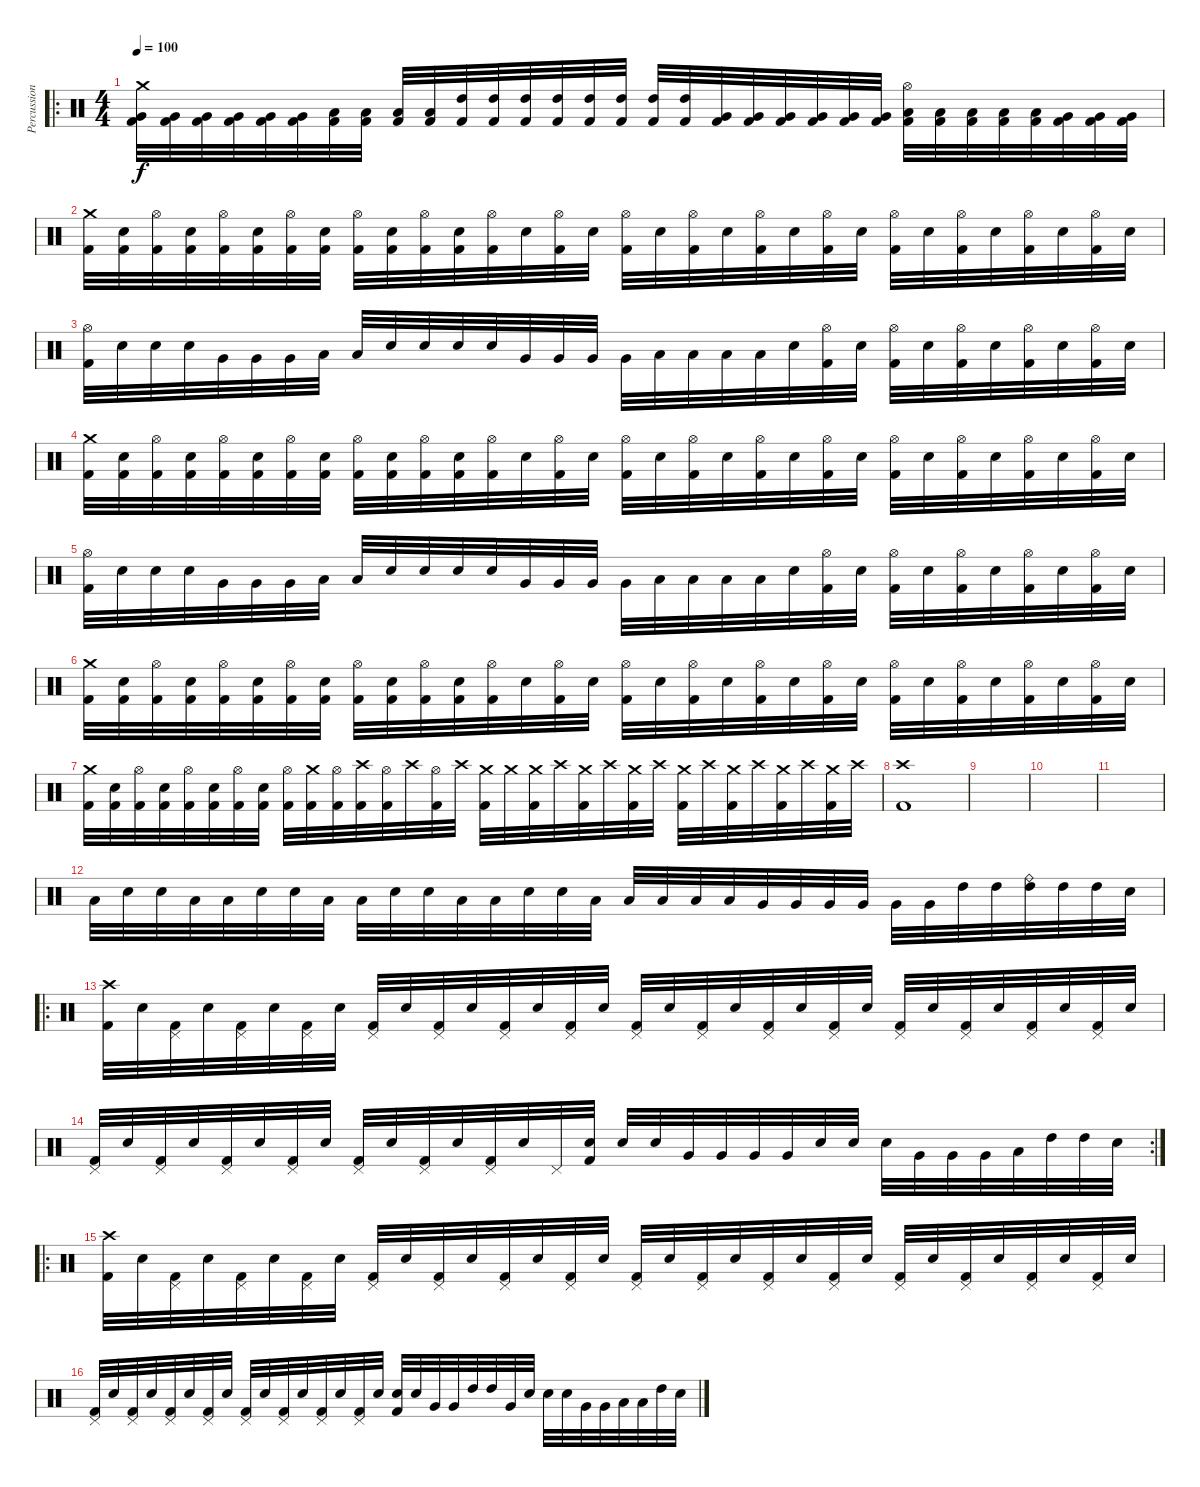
\track ("Percussion" "Percussion") {instrument percussion}
\staff {score}
\articulation defaults
\ro
\ts (4 4)
\tempo 100
\clef neutral
\ks c
("Crash medium (hit)" "Very Low Tom (hit)" "Kick (hit) 2").32{dy f} ("Very Low Tom (hit)" "Kick (hit) 2").32 ("Very Low Tom (hit)" "Kick (hit) 2").32 ("Very Low Tom (hit)" "Kick (hit) 2").32 ("Very Low Tom (hit)" "Kick (hit) 2").32 ("Very Low Tom (hit)" "Kick (hit) 2").32 ("Low Tom (hit)" "Kick (hit) 2").32 ("Low Tom (hit)" "Kick (hit) 2").32 ("Low Tom (hit)" "Kick (hit) 2").32 ("Low Tom (hit)" "Kick (hit) 2").32 ("High Tom (hit)" "Kick (hit) 2").32 ("High Tom (hit)" "Kick (hit) 2").32 ("High Tom (hit)" "Kick (hit) 2").32 ("High Tom (hit)" "Kick (hit) 2").32 ("High Tom (hit)" "Kick (hit) 2").32 ("High Tom (hit)" "Kick (hit) 2").32 ("High Tom (hit)" "Kick (hit) 2").32 ("High Tom (hit)" "Kick (hit) 2").32 ("Very Low Tom (hit)" "Kick (hit) 2").32 ("Very Low Tom (hit)" "Kick (hit) 2").32 ("Very Low Tom (hit)" "Kick (hit) 2").32 ("Very Low Tom (hit)" "Kick (hit) 2").32 ("Very Low Tom (hit)" "Kick (hit) 2").32 ("Very Low Tom (hit)" "Kick (hit) 2").32 ("Hi-Hat (open)" "Low Tom (hit)" "Kick (hit) 2").32 ("Low Tom (hit)" "Kick (hit) 2").32 ("Low Tom (hit)" "Kick (hit) 2").32 ("Low Tom (hit)" "Kick (hit) 2").32 ("Low Tom (hit)" "Kick (hit) 2").32 ("Very Low Tom (hit)" "Kick (hit) 2").32 ("Very Low Tom (hit)" "Kick (hit) 2").32 ("Very Low Tom (hit)" "Kick (hit) 2").32 |
("Crash medium (hit)" "Kick (hit) 2").32 ("Electric Snare (hit)" "Kick (hit) 2").32 ("Hi-Hat (open)" "Kick (hit) 2").32 ("Electric Snare (hit)" "Kick (hit) 2").32 ("Hi-Hat (open)" "Kick (hit) 2").32 ("Electric Snare (hit)" "Kick (hit) 2").32 ("Hi-Hat (open)" "Kick (hit) 2").32 ("Electric Snare (hit)" "Kick (hit) 2").32 ("Hi-Hat (open)" "Kick (hit) 2").32 ("Electric Snare (hit)" "Kick (hit) 2").32 ("Hi-Hat (open)" "Kick (hit) 2").32 ("Electric Snare (hit)" "Kick (hit) 2").32 ("Hi-Hat (open)" "Kick (hit) 2").32 "Electric Snare (hit)".32 ("Hi-Hat (open)" "Kick (hit) 2").32 "Electric Snare (hit)".32 ("Hi-Hat (open)" "Kick (hit) 2").32 "Electric Snare (hit)".32 ("Hi-Hat (open)" "Kick (hit) 2").32 "Electric Snare (hit)".32 ("Hi-Hat (open)" "Kick (hit) 2").32 "Electric Snare (hit)".32 ("Hi-Hat (open)" "Kick (hit) 2").32 "Electric Snare (hit)".32 ("Hi-Hat (open)" "Kick (hit) 2").32 "Electric Snare (hit)".32 ("Hi-Hat (open)" "Kick (hit) 2").32 "Electric Snare (hit)".32 ("Hi-Hat (open)" "Kick (hit) 2").32 "Electric Snare (hit)".32 ("Hi-Hat (open)" "Kick (hit) 2").32 "Electric Snare (hit)".32 |
("Hi-Hat (open)" "Kick (hit) 2").32 "Electric Snare (hit)".32 "Electric Snare (hit)".32 "Electric Snare (hit)".32 "Very Low Tom (hit)".32 "Very Low Tom (hit)".32 "Very Low Tom (hit)".32 "Low Tom (hit)".32 "Low Tom (hit)".32 "Electric Snare (hit)".32 "Electric Snare (hit)".32 "Electric Snare (hit)".32 "Electric Snare (hit)".32 "Very Low Tom (hit)".32 "Very Low Tom (hit)".32 "Very Low Tom (hit)".32 "Very Low Tom (hit)".32 "Low Tom (hit)".32 "Low Tom (hit)".32 "Low Tom (hit)".32 "Low Tom (hit)".32 "Electric Snare (hit)".32 ("Hi-Hat (open)" "Kick (hit) 2").32 "Electric Snare (hit)".32 ("Hi-Hat (open)" "Kick (hit) 2").32 "Electric Snare (hit)".32 ("Hi-Hat (open)" "Kick (hit) 2").32 "Electric Snare (hit)".32 ("Hi-Hat (open)" "Kick (hit) 2").32 "Electric Snare (hit)".32 ("Hi-Hat (open)" "Kick (hit) 2").32 "Electric Snare (hit)".32 |
("Crash medium (hit)" "Kick (hit) 2").32 ("Electric Snare (hit)" "Kick (hit) 2").32 ("Hi-Hat (open)" "Kick (hit) 2").32 ("Electric Snare (hit)" "Kick (hit) 2").32 ("Hi-Hat (open)" "Kick (hit) 2").32 ("Electric Snare (hit)" "Kick (hit) 2").32 ("Hi-Hat (open)" "Kick (hit) 2").32 ("Electric Snare (hit)" "Kick (hit) 2").32 ("Hi-Hat (open)" "Kick (hit) 2").32 ("Electric Snare (hit)" "Kick (hit) 2").32 ("Hi-Hat (open)" "Kick (hit) 2").32 ("Electric Snare (hit)" "Kick (hit) 2").32 ("Hi-Hat (open)" "Kick (hit) 2").32 "Electric Snare (hit)".32 ("Hi-Hat (open)" "Kick (hit) 2").32 "Electric Snare (hit)".32 ("Hi-Hat (open)" "Kick (hit) 2").32 "Electric Snare (hit)".32 ("Hi-Hat (open)" "Kick (hit) 2").32 "Electric Snare (hit)".32 ("Hi-Hat (open)" "Kick (hit) 2").32 "Electric Snare (hit)".32 ("Hi-Hat (open)" "Kick (hit) 2").32 "Electric Snare (hit)".32 ("Hi-Hat (open)" "Kick (hit) 2").32 "Electric Snare (hit)".32 ("Hi-Hat (open)" "Kick (hit) 2").32 "Electric Snare (hit)".32 ("Hi-Hat (open)" "Kick (hit) 2").32 "Electric Snare (hit)".32 ("Hi-Hat (open)" "Kick (hit) 2").32 "Electric Snare (hit)".32 |
("Hi-Hat (open)" "Kick (hit) 2").32 "Electric Snare (hit)".32 "Electric Snare (hit)".32 "Electric Snare (hit)".32 "Very Low Tom (hit)".32 "Very Low Tom (hit)".32 "Very Low Tom (hit)".32 "Low Tom (hit)".32 "Low Tom (hit)".32 "Electric Snare (hit)".32 "Electric Snare (hit)".32 "Electric Snare (hit)".32 "Electric Snare (hit)".32 "Very Low Tom (hit)".32 "Very Low Tom (hit)".32 "Very Low Tom (hit)".32 "Very Low Tom (hit)".32 "Low Tom (hit)".32 "Low Tom (hit)".32 "Low Tom (hit)".32 "Low Tom (hit)".32 "Electric Snare (hit)".32 ("Hi-Hat (open)" "Kick (hit) 2").32 "Electric Snare (hit)".32 ("Hi-Hat (open)" "Kick (hit) 2").32 "Electric Snare (hit)".32 ("Hi-Hat (open)" "Kick (hit) 2").32 "Electric Snare (hit)".32 ("Hi-Hat (open)" "Kick (hit) 2").32 "Electric Snare (hit)".32 ("Hi-Hat (open)" "Kick (hit) 2").32 "Electric Snare (hit)".32 |
("Crash medium (hit)" "Kick (hit) 2").32 ("Electric Snare (hit)" "Kick (hit) 2").32 ("Hi-Hat (open)" "Kick (hit) 2").32 ("Electric Snare (hit)" "Kick (hit) 2").32 ("Hi-Hat (open)" "Kick (hit) 2").32 ("Electric Snare (hit)" "Kick (hit) 2").32 ("Hi-Hat (open)" "Kick (hit) 2").32 ("Electric Snare (hit)" "Kick (hit) 2").32 ("Hi-Hat (open)" "Kick (hit) 2").32 ("Electric Snare (hit)" "Kick (hit) 2").32 ("Hi-Hat (open)" "Kick (hit) 2").32 ("Electric Snare (hit)" "Kick (hit) 2").32 ("Hi-Hat (open)" "Kick (hit) 2").32 "Electric Snare (hit)".32 ("Hi-Hat (open)" "Kick (hit) 2").32 "Electric Snare (hit)".32 ("Hi-Hat (open)" "Kick (hit) 2").32 "Electric Snare (hit)".32 ("Hi-Hat (open)" "Kick (hit) 2").32 "Electric Snare (hit)".32 ("Hi-Hat (open)" "Kick (hit) 2").32 "Electric Snare (hit)".32 ("Hi-Hat (open)" "Kick (hit) 2").32 "Electric Snare (hit)".32 ("Hi-Hat (open)" "Kick (hit) 2").32 "Electric Snare (hit)".32 ("Hi-Hat (open)" "Kick (hit) 2").32 "Electric Snare (hit)".32 ("Hi-Hat (open)" "Kick (hit) 2").32 "Electric Snare (hit)".32 ("Hi-Hat (open)" "Kick (hit) 2").32 "Electric Snare (hit)".32 |
("Crash medium (hit)" "Kick (hit) 2").32 ("Electric Snare (hit)" "Kick (hit) 2").32 ("Hi-Hat (open)" "Kick (hit) 2").32 ("Electric Snare (hit)" "Kick (hit) 2").32 ("Hi-Hat (open)" "Kick (hit) 2").32 ("Electric Snare (hit)" "Kick (hit) 2").32 ("Hi-Hat (open)" "Kick (hit) 2").32 ("Electric Snare (hit)" "Kick (hit) 2").32 ("Hi-Hat (open)" "Kick (hit) 2").32 ("Crash medium (hit)" "Kick (hit) 2").32 ("Hi-Hat (open)" "Kick (hit) 2").32 ("Crash high (hit)" "Kick (hit) 2").32 ("Hi-Hat (open)" "Kick (hit) 2").32 "Crash high (hit)".32 ("Hi-Hat (open)" "Kick (hit) 2").32 "Crash high (hit)".32 ("Crash medium (hit)" "Kick (hit) 2").32 "Crash medium (hit)".32 ("Crash medium (hit)" "Kick (hit) 2").32 "Crash high (hit)".32 ("Crash medium (hit)" "Kick (hit) 2").32 "Crash high (hit)".32 ("Crash medium (hit)" "Kick (hit) 2").32 "Crash high (hit)".32 ("Crash medium (hit)" "Kick (hit) 2").32 "Crash high (hit)".32 ("Crash medium (hit)" "Kick (hit) 2").32 "Crash high (hit)".32 ("Crash medium (hit)" "Kick (hit) 2").32 "Crash high (hit)".32 ("Crash medium (hit)" "Kick (hit) 2").32 "Crash high (hit)".32 |
("Crash high (hit)" "Kick (hit) 2").1 |
|
|
|
"Low Tom (hit)".32 "Electric Snare (hit)".32 "Electric Snare (hit)".32 "Low Tom (hit)".32 "Low Tom (hit)".32 "Electric Snare (hit)".32 "Electric Snare (hit)".32 "Low Tom (hit)".32 "Low Tom (hit)".32 "Electric Snare (hit)".32 "Electric Snare (hit)".32 "Low Tom (hit)".32 "Low Tom (hit)".32 "Electric Snare (hit)".32 "Electric Snare (hit)".32 "Low Tom (hit)".32 "Low Tom (hit)".32 "Low Tom (hit)".32 "Low Tom (hit)".32 "Low Tom (hit)".32 "Very Low Tom (hit)".32 "Very Low Tom (hit)".32 "Very Low Tom (hit)".32 "Very Low Tom (hit)".32 "Very Low Tom (hit)".32 "Very Low Tom (hit)".32 "High Tom (hit)".32 "High Tom (hit)".32 ("Ride (bell)" "High Tom (hit)").32 "High Tom (hit)".32 "High Tom (hit)".32 "Electric Snare (hit)".32 |
\ro
("Crash high (hit)" "Kick (hit) 2").32 "Electric Snare (hit)".32 ("Pedal Hi-Hat (hit)" "Kick (hit) 2").32 "Electric Snare (hit)".32 ("Pedal Hi-Hat (hit)" "Kick (hit) 2").32 "Electric Snare (hit)".32 ("Pedal Hi-Hat (hit)" "Kick (hit) 2").32 "Electric Snare (hit)".32 ("Pedal Hi-Hat (hit)" "Kick (hit) 2").32 "Electric Snare (hit)".32 ("Pedal Hi-Hat (hit)" "Kick (hit) 2").32 "Electric Snare (hit)".32 ("Pedal Hi-Hat (hit)" "Kick (hit) 2").32 "Electric Snare (hit)".32 ("Pedal Hi-Hat (hit)" "Kick (hit) 2").32 "Electric Snare (hit)".32 ("Pedal Hi-Hat (hit)" "Kick (hit) 2").32 "Electric Snare (hit)".32 ("Pedal Hi-Hat (hit)" "Kick (hit) 2").32 "Electric Snare (hit)".32 ("Pedal Hi-Hat (hit)" "Kick (hit) 2").32 "Electric Snare (hit)".32 ("Pedal Hi-Hat (hit)" "Kick (hit) 2").32 "Electric Snare (hit)".32 ("Pedal Hi-Hat (hit)" "Kick (hit) 2").32 "Electric Snare (hit)".32 ("Pedal Hi-Hat (hit)" "Kick (hit) 2").32 "Electric Snare (hit)".32 ("Pedal Hi-Hat (hit)" "Kick (hit) 2").32 "Electric Snare (hit)".32 ("Pedal Hi-Hat (hit)" "Kick (hit) 2").32 "Electric Snare (hit)".32 |
\rc 2
("Pedal Hi-Hat (hit)" "Kick (hit) 2").32 "Electric Snare (hit)".32 ("Pedal Hi-Hat (hit)" "Kick (hit) 2").32 "Electric Snare (hit)".32 ("Pedal Hi-Hat (hit)" "Kick (hit) 2").32 "Electric Snare (hit)".32 ("Pedal Hi-Hat (hit)" "Kick (hit) 2").32 "Electric Snare (hit)".32 ("Pedal Hi-Hat (hit)" "Kick (hit) 2").32 "Electric Snare (hit)".32 ("Pedal Hi-Hat (hit)" "Kick (hit) 2").32 "Electric Snare (hit)".32 ("Pedal Hi-Hat (hit)" "Kick (hit) 2").32 "Electric Snare (hit)".32 "Pedal Hi-Hat (hit)".32 ("Electric Snare (hit)" "Kick (hit) 2").32 "Electric Snare (hit)".32 "Electric Snare (hit)".32 "Very Low Tom (hit)".32 "Very Low Tom (hit)".32 "Very Low Tom (hit)".32 "Very Low Tom (hit)".32 "Electric Snare (hit)".32 "Electric Snare (hit)".32 "Electric Snare (hit)".32 "Very Low Tom (hit)".32 "Very Low Tom (hit)".32 "Very Low Tom (hit)".32 "Low Tom (hit)".32 "High Tom (hit)".32 "High Tom (hit)".32 "Electric Snare (hit)".32 |
\ro
("Crash high (hit)" "Kick (hit) 2").32 "Electric Snare (hit)".32 ("Pedal Hi-Hat (hit)" "Kick (hit) 2").32 "Electric Snare (hit)".32 ("Pedal Hi-Hat (hit)" "Kick (hit) 2").32 "Electric Snare (hit)".32 ("Pedal Hi-Hat (hit)" "Kick (hit) 2").32 "Electric Snare (hit)".32 ("Pedal Hi-Hat (hit)" "Kick (hit) 2").32 "Electric Snare (hit)".32 ("Pedal Hi-Hat (hit)" "Kick (hit) 2").32 "Electric Snare (hit)".32 ("Pedal Hi-Hat (hit)" "Kick (hit) 2").32 "Electric Snare (hit)".32 ("Pedal Hi-Hat (hit)" "Kick (hit) 2").32 "Electric Snare (hit)".32 ("Pedal Hi-Hat (hit)" "Kick (hit) 2").32 "Electric Snare (hit)".32 ("Pedal Hi-Hat (hit)" "Kick (hit) 2").32 "Electric Snare (hit)".32 ("Pedal Hi-Hat (hit)" "Kick (hit) 2").32 "Electric Snare (hit)".32 ("Pedal Hi-Hat (hit)" "Kick (hit) 2").32 "Electric Snare (hit)".32 ("Pedal Hi-Hat (hit)" "Kick (hit) 2").32 "Electric Snare (hit)".32 ("Pedal Hi-Hat (hit)" "Kick (hit) 2").32 "Electric Snare (hit)".32 ("Pedal Hi-Hat (hit)" "Kick (hit) 2").32 "Electric Snare (hit)".32 ("Pedal Hi-Hat (hit)" "Kick (hit) 2").32 "Electric Snare (hit)".32 |
("Pedal Hi-Hat (hit)" "Kick (hit) 2").32 "Electric Snare (hit)".32 ("Pedal Hi-Hat (hit)" "Kick (hit) 2").32 "Electric Snare (hit)".32 ("Pedal Hi-Hat (hit)" "Kick (hit) 2").32 "Electric Snare (hit)".32 ("Pedal Hi-Hat (hit)" "Kick (hit) 2").32 "Electric Snare (hit)".32 ("Pedal Hi-Hat (hit)" "Kick (hit) 2").32 "Electric Snare (hit)".32 ("Pedal Hi-Hat (hit)" "Kick (hit) 2").32 "Electric Snare (hit)".32 ("Pedal Hi-Hat (hit)" "Kick (hit) 2").32 "Electric Snare (hit)".32 ("Pedal Hi-Hat (hit)" "Kick (hit) 2").32 "Electric Snare (hit)".32 ("Electric Snare (hit)" "Kick (hit) 2").32 "Electric Snare (hit)".32 "Very Low Tom (hit)".32 "Very Low Tom (hit)".32 "High Tom (hit)".32 "High Tom (hit)".32 "Very Low Tom (hit)".32 "Electric Snare (hit)".32 "Electric Snare (hit)".32 "Electric Snare (hit)".32 "Very Low Tom (hit)".32 "Very Low Tom (hit)".32 "Low Tom (hit)".32 "Low Tom (hit)".32 "High Tom (hit)".32 "Electric Snare (hit)".32
